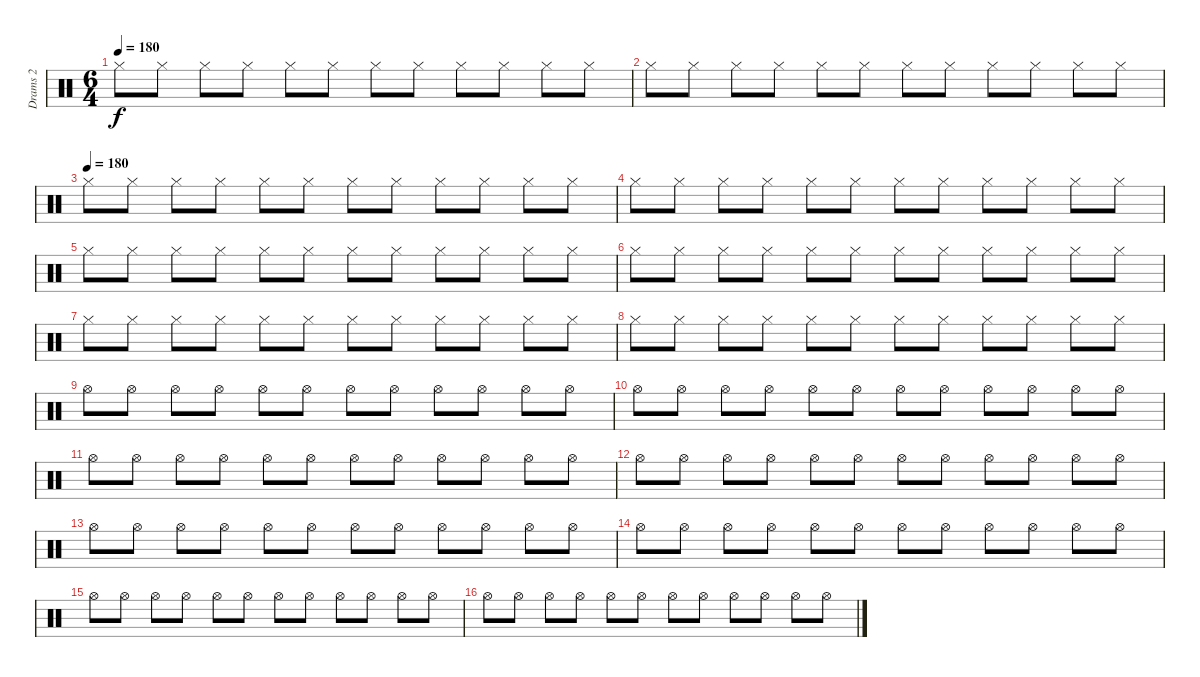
\track ("Drams 2" "Drams 2") {instrument percussion}
\staff {score}
\articulation defaults
\ts (6 4)
\tempo 180
\clef neutral
\ks c "Hi-Hat (closed)".8{dy f} "Hi-Hat (closed)".8 "Hi-Hat (closed)".8 "Hi-Hat (closed)".8 "Hi-Hat (closed)".8 "Hi-Hat (closed)".8 "Hi-Hat (closed)".8 "Hi-Hat (closed)".8 "Hi-Hat (closed)".8 "Hi-Hat (closed)".8 "Hi-Hat (closed)".8 "Hi-Hat (closed)".8
|
"Hi-Hat (closed)".8 "Hi-Hat (closed)".8 "Hi-Hat (closed)".8 "Hi-Hat (closed)".8 "Hi-Hat (closed)".8 "Hi-Hat (closed)".8 "Hi-Hat (closed)".8 "Hi-Hat (closed)".8 "Hi-Hat (closed)".8 "Hi-Hat (closed)".8 "Hi-Hat (closed)".8 "Hi-Hat (closed)".8 |
\tempo (180)
"Hi-Hat (closed)".8 "Hi-Hat (closed)".8 "Hi-Hat (closed)".8 "Hi-Hat (closed)".8 "Hi-Hat (closed)".8 "Hi-Hat (closed)".8 "Hi-Hat (closed)".8 "Hi-Hat (closed)".8 "Hi-Hat (closed)".8 "Hi-Hat (closed)".8 "Hi-Hat (closed)".8 "Hi-Hat (closed)".8 |
"Hi-Hat (closed)".8 "Hi-Hat (closed)".8 "Hi-Hat (closed)".8 "Hi-Hat (closed)".8 "Hi-Hat (closed)".8 "Hi-Hat (closed)".8 "Hi-Hat (closed)".8 "Hi-Hat (closed)".8 "Hi-Hat (closed)".8 "Hi-Hat (closed)".8 "Hi-Hat (closed)".8 "Hi-Hat (closed)".8 |
"Hi-Hat (closed)".8 "Hi-Hat (closed)".8 "Hi-Hat (closed)".8 "Hi-Hat (closed)".8 "Hi-Hat (closed)".8 "Hi-Hat (closed)".8 "Hi-Hat (closed)".8 "Hi-Hat (closed)".8 "Hi-Hat (closed)".8 "Hi-Hat (closed)".8 "Hi-Hat (closed)".8 "Hi-Hat (closed)".8 |
"Hi-Hat (closed)".8 "Hi-Hat (closed)".8 "Hi-Hat (closed)".8 "Hi-Hat (closed)".8 "Hi-Hat (closed)".8 "Hi-Hat (closed)".8 "Hi-Hat (closed)".8 "Hi-Hat (closed)".8 "Hi-Hat (closed)".8 "Hi-Hat (closed)".8 "Hi-Hat (closed)".8 "Hi-Hat (closed)".8 |
"Hi-Hat (closed)".8 "Hi-Hat (closed)".8 "Hi-Hat (closed)".8 "Hi-Hat (closed)".8 "Hi-Hat (closed)".8 "Hi-Hat (closed)".8 "Hi-Hat (closed)".8 "Hi-Hat (closed)".8 "Hi-Hat (closed)".8 "Hi-Hat (closed)".8 "Hi-Hat (closed)".8 "Hi-Hat (closed)".8 |
"Hi-Hat (closed)".8 "Hi-Hat (closed)".8 "Hi-Hat (closed)".8 "Hi-Hat (closed)".8 "Hi-Hat (closed)".8 "Hi-Hat (closed)".8 "Hi-Hat (closed)".8 "Hi-Hat (closed)".8 "Hi-Hat (closed)".8 "Hi-Hat (closed)".8 "Hi-Hat (closed)".8 "Hi-Hat (closed)".8 |
"Hi-Hat (open)".8 "Hi-Hat (open)".8 "Hi-Hat (open)".8 "Hi-Hat (open)".8 "Hi-Hat (open)".8 "Hi-Hat (open)".8 "Hi-Hat (open)".8 "Hi-Hat (open)".8 "Hi-Hat (open)".8 "Hi-Hat (open)".8 "Hi-Hat (open)".8 "Hi-Hat (open)".8 |
"Hi-Hat (open)".8 "Hi-Hat (open)".8 "Hi-Hat (open)".8 "Hi-Hat (open)".8 "Hi-Hat (open)".8 "Hi-Hat (open)".8 "Hi-Hat (open)".8 "Hi-Hat (open)".8 "Hi-Hat (open)".8 "Hi-Hat (open)".8 "Hi-Hat (open)".8 "Hi-Hat (open)".8 |
"Hi-Hat (open)".8 "Hi-Hat (open)".8 "Hi-Hat (open)".8 "Hi-Hat (open)".8 "Hi-Hat (open)".8 "Hi-Hat (open)".8 "Hi-Hat (open)".8 "Hi-Hat (open)".8 "Hi-Hat (open)".8 "Hi-Hat (open)".8 "Hi-Hat (open)".8 "Hi-Hat (open)".8 |
"Hi-Hat (open)".8 "Hi-Hat (open)".8 "Hi-Hat (open)".8 "Hi-Hat (open)".8 "Hi-Hat (open)".8 "Hi-Hat (open)".8 "Hi-Hat (open)".8 "Hi-Hat (open)".8 "Hi-Hat (open)".8 "Hi-Hat (open)".8 "Hi-Hat (open)".8 "Hi-Hat (open)".8 |
"Hi-Hat (open)".8 "Hi-Hat (open)".8 "Hi-Hat (open)".8 "Hi-Hat (open)".8 "Hi-Hat (open)".8 "Hi-Hat (open)".8 "Hi-Hat (open)".8 "Hi-Hat (open)".8 "Hi-Hat (open)".8 "Hi-Hat (open)".8 "Hi-Hat (open)".8 "Hi-Hat (open)".8 |
"Hi-Hat (open)".8 "Hi-Hat (open)".8 "Hi-Hat (open)".8 "Hi-Hat (open)".8 "Hi-Hat (open)".8 "Hi-Hat (open)".8 "Hi-Hat (open)".8 "Hi-Hat (open)".8 "Hi-Hat (open)".8 "Hi-Hat (open)".8 "Hi-Hat (open)".8 "Hi-Hat (open)".8 |
"Hi-Hat (open)".8 "Hi-Hat (open)".8 "Hi-Hat (open)".8 "Hi-Hat (open)".8 "Hi-Hat (open)".8 "Hi-Hat (open)".8 "Hi-Hat (open)".8 "Hi-Hat (open)".8 "Hi-Hat (open)".8 "Hi-Hat (open)".8 "Hi-Hat (open)".8 "Hi-Hat (open)".8 |
"Hi-Hat (open)".8 "Hi-Hat (open)".8 "Hi-Hat (open)".8 "Hi-Hat (open)".8 "Hi-Hat (open)".8 "Hi-Hat (open)".8 "Hi-Hat (open)".8 "Hi-Hat (open)".8 "Hi-Hat (open)".8 "Hi-Hat (open)".8 "Hi-Hat (open)".8 "Hi-Hat (open)".8
